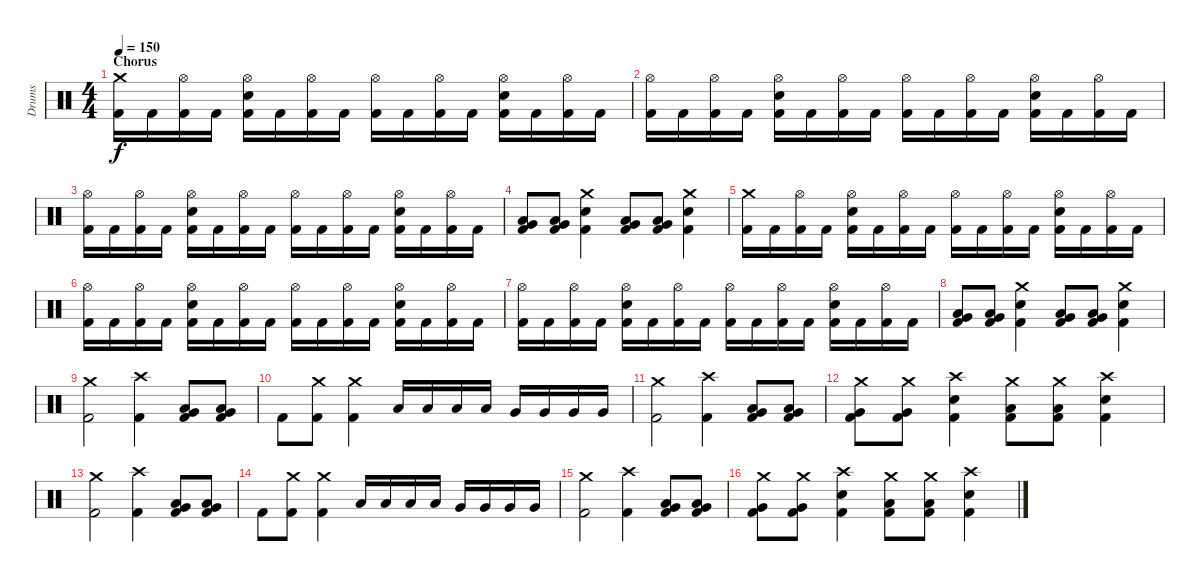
\track ("Drums" "Drums") {instrument percussion}
\staff {score}
\articulation defaults
\ts (4 4)
\section ("" "Chorus")
\tempo 150
\clef neutral
\ks c
("Crash medium (hit)" "Kick (hit) 2").16{dy f} "Kick (hit) 2".16 ("Hi-Hat (open)" "Kick (hit) 2").16 "Kick (hit) 2".16 ("Hi-Hat (open)" "Snare (hit) 2" "Kick (hit) 2").16 "Kick (hit) 2".16 ("Hi-Hat (open)" "Kick (hit) 2").16 "Kick (hit) 2".16 ("Hi-Hat (open)" "Kick (hit) 2").16 "Kick (hit) 2".16 ("Hi-Hat (open)" "Kick (hit) 2").16 "Kick (hit) 2".16 ("Hi-Hat (open)" "Snare (hit) 2" "Kick (hit) 2").16 "Kick (hit) 2".16 ("Hi-Hat (open)" "Kick (hit) 2").16 "Kick (hit) 2".16 |
("Hi-Hat (open)" "Kick (hit) 2").16 "Kick (hit) 2".16 ("Hi-Hat (open)" "Kick (hit) 2").16 "Kick (hit) 2".16 ("Hi-Hat (open)" "Snare (hit) 2" "Kick (hit) 2").16 "Kick (hit) 2".16 ("Hi-Hat (open)" "Kick (hit) 2").16 "Kick (hit) 2".16 ("Hi-Hat (open)" "Kick (hit) 2").16 "Kick (hit) 2".16 ("Hi-Hat (open)" "Kick (hit) 2").16 "Kick (hit) 2".16 ("Hi-Hat (open)" "Snare (hit) 2" "Kick (hit) 2").16 "Kick (hit) 2".16 ("Hi-Hat (open)" "Kick (hit) 2").16 "Kick (hit) 2".16 |
("Hi-Hat (open)" "Kick (hit) 2").16 "Kick (hit) 2".16 ("Hi-Hat (open)" "Kick (hit) 2").16 "Kick (hit) 2".16 ("Hi-Hat (open)" "Snare (hit) 2" "Kick (hit) 2").16 "Kick (hit) 2".16 ("Hi-Hat (open)" "Kick (hit) 2").16 "Kick (hit) 2".16 ("Hi-Hat (open)" "Kick (hit) 2").16 "Kick (hit) 2".16 ("Hi-Hat (open)" "Kick (hit) 2").16 "Kick (hit) 2".16 ("Hi-Hat (open)" "Snare (hit) 2" "Kick (hit) 2").16 "Kick (hit) 2".16 ("Hi-Hat (open)" "Kick (hit) 2").16 "Kick (hit) 2".16 |
("Low Tom (hit)" "Very Low Tom (hit)" "Kick (hit) 2").8 ("Low Tom (hit)" "Very Low Tom (hit)" "Kick (hit) 2").8 ("Crash medium (hit)" "Snare (hit) 2" "Kick (hit) 2").4 ("Very Low Tom (hit)" "Low Floor Tom (hit)" "Kick (hit) 2").8 ("Very Low Tom (hit)" "Low Floor Tom (hit)" "Kick (hit) 2").8 ("Crash medium (hit)" "Snare (hit) 2" "Kick (hit) 2").4 |
("Crash medium (hit)" "Kick (hit) 2").16 "Kick (hit) 2".16 ("Hi-Hat (open)" "Kick (hit) 2").16 "Kick (hit) 2".16 ("Hi-Hat (open)" "Snare (hit) 2" "Kick (hit) 2").16 "Kick (hit) 2".16 ("Hi-Hat (open)" "Kick (hit) 2").16 "Kick (hit) 2".16 ("Hi-Hat (open)" "Kick (hit) 2").16 "Kick (hit) 2".16 ("Hi-Hat (open)" "Kick (hit) 2").16 "Kick (hit) 2".16 ("Hi-Hat (open)" "Snare (hit) 2" "Kick (hit) 2").16 "Kick (hit) 2".16 ("Hi-Hat (open)" "Kick (hit) 2").16 "Kick (hit) 2".16 |
("Hi-Hat (open)" "Kick (hit) 2").16 "Kick (hit) 2".16 ("Hi-Hat (open)" "Kick (hit) 2").16 "Kick (hit) 2".16 ("Hi-Hat (open)" "Snare (hit) 2" "Kick (hit) 2").16 "Kick (hit) 2".16 ("Hi-Hat (open)" "Kick (hit) 2").16 "Kick (hit) 2".16 ("Hi-Hat (open)" "Kick (hit) 2").16 "Kick (hit) 2".16 ("Hi-Hat (open)" "Kick (hit) 2").16 "Kick (hit) 2".16 ("Hi-Hat (open)" "Snare (hit) 2" "Kick (hit) 2").16 "Kick (hit) 2".16 ("Hi-Hat (open)" "Kick (hit) 2").16 "Kick (hit) 2".16 |
("Hi-Hat (open)" "Kick (hit) 2").16 "Kick (hit) 2".16 ("Hi-Hat (open)" "Kick (hit) 2").16 "Kick (hit) 2".16 ("Hi-Hat (open)" "Snare (hit) 2" "Kick (hit) 2").16 "Kick (hit) 2".16 ("Hi-Hat (open)" "Kick (hit) 2").16 "Kick (hit) 2".16 ("Hi-Hat (open)" "Kick (hit) 2").16 "Kick (hit) 2".16 ("Hi-Hat (open)" "Kick (hit) 2").16 "Kick (hit) 2".16 ("Hi-Hat (open)" "Snare (hit) 2" "Kick (hit) 2").16 "Kick (hit) 2".16 ("Hi-Hat (open)" "Kick (hit) 2").16 "Kick (hit) 2".16 |
("Low Tom (hit)" "Very Low Tom (hit)" "Kick (hit) 2").8 ("Low Tom (hit)" "Very Low Tom (hit)" "Kick (hit) 2").8 ("Crash medium (hit)" "Snare (hit) 2" "Kick (hit) 2").4 ("Very Low Tom (hit)" "Low Floor Tom (hit)" "Kick (hit) 2").8 ("Very Low Tom (hit)" "Low Floor Tom (hit)" "Kick (hit) 2").8 ("Crash medium (hit)" "Snare (hit) 2" "Kick (hit) 2").4 |
("Crash medium (hit)" "Kick (hit) 2").2 ("Crash high (hit)" "Kick (hit) 2").4 ("Very Low Tom (hit)" "Low Floor Tom (hit)" "Kick (hit) 2").8 ("Very Low Tom (hit)" "Low Floor Tom (hit)" "Kick (hit) 2").8 |
"Kick (hit) 2".8 ("Crash medium (hit)" "Kick (hit) 2").8 ("Crash medium (hit)" "Kick (hit) 2").4 "Low Tom (hit)".16 "Low Tom (hit)".16 "Low Tom (hit)".16 "Low Tom (hit)".16 "Very Low Tom (hit)".16 "Very Low Tom (hit)".16 "Very Low Tom (hit)".16 "Very Low Tom (hit)".16 |
("Crash medium (hit)" "Kick (hit) 2").2 ("Crash high (hit)" "Kick (hit) 2").4 ("Very Low Tom (hit)" "Low Floor Tom (hit)" "Kick (hit) 2").8 ("Very Low Tom (hit)" "Low Floor Tom (hit)" "Kick (hit) 2").8 |
("Crash medium (hit)" "Very Low Tom (hit)" "Kick (hit) 2").8 ("Crash medium (hit)" "Very Low Tom (hit)" "Kick (hit) 2").8 ("Crash high (hit)" "Snare (hit) 2" "Kick (hit) 2").4 ("Crash medium (hit)" "Low Floor Tom (hit)" "Kick (hit) 2").8 ("Crash medium (hit)" "Low Floor Tom (hit)" "Kick (hit) 2").8 ("Crash high (hit)" "Snare (hit) 2" "Kick (hit) 2").4 |
("Crash medium (hit)" "Kick (hit) 2").2 ("Crash high (hit)" "Kick (hit) 2").4 ("Very Low Tom (hit)" "Low Floor Tom (hit)" "Kick (hit) 2").8 ("Very Low Tom (hit)" "Low Floor Tom (hit)" "Kick (hit) 2").8 |
"Kick (hit) 2".8 ("Crash medium (hit)" "Kick (hit) 2").8 ("Crash medium (hit)" "Kick (hit) 2").4 "Low Tom (hit)".16 "Low Tom (hit)".16 "Low Tom (hit)".16 "Low Tom (hit)".16 "Very Low Tom (hit)".16 "Very Low Tom (hit)".16 "Very Low Tom (hit)".16 "Very Low Tom (hit)".16 |
("Crash medium (hit)" "Kick (hit) 2").2 ("Crash high (hit)" "Kick (hit) 2").4 ("Very Low Tom (hit)" "Low Floor Tom (hit)" "Kick (hit) 2").8 ("Very Low Tom (hit)" "Low Floor Tom (hit)" "Kick (hit) 2").8 |
("Crash medium (hit)" "Very Low Tom (hit)" "Kick (hit) 2").8 ("Crash medium (hit)" "Very Low Tom (hit)" "Kick (hit) 2").8 ("Crash high (hit)" "Snare (hit) 2" "Kick (hit) 2").4 ("Crash medium (hit)" "Low Floor Tom (hit)" "Kick (hit) 2").8 ("Crash medium (hit)" "Low Floor Tom (hit)" "Kick (hit) 2").8 ("Crash high (hit)" "Snare (hit) 2" "Kick (hit) 2").4
